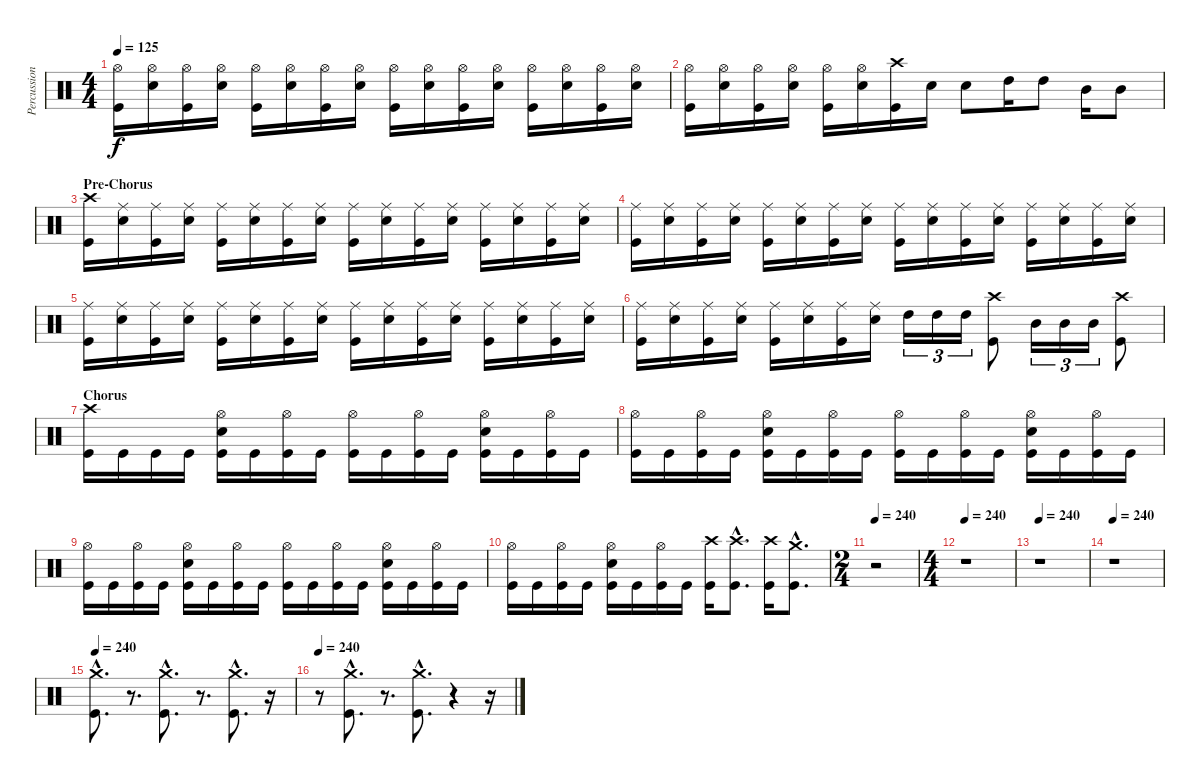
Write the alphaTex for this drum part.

\track ("Percussion" "Percussion") {instrument percussion}
\staff {score}
\articulation defaults
\ts (4 4)
\tempo 125
\clef neutral
\ks c
("Hi-Hat (open)" "Kick (hit)").16{dy f} ("Hi-Hat (open)" "Electric Snare (hit)").16 ("Hi-Hat (open)" "Kick (hit)").16 ("Hi-Hat (open)" "Electric Snare (hit)").16 ("Hi-Hat (open)" "Kick (hit)").16 ("Hi-Hat (open)" "Electric Snare (hit)").16 ("Hi-Hat (open)" "Kick (hit)").16 ("Hi-Hat (open)" "Electric Snare (hit)").16 ("Hi-Hat (open)" "Kick (hit)").16 ("Hi-Hat (open)" "Electric Snare (hit)").16 ("Hi-Hat (open)" "Kick (hit)").16 ("Hi-Hat (open)" "Electric Snare (hit)").16 ("Hi-Hat (open)" "Kick (hit)").16 ("Hi-Hat (open)" "Electric Snare (hit)").16 ("Hi-Hat (open)" "Kick (hit)").16 ("Hi-Hat (open)" "Electric Snare (hit)").16 |
("Hi-Hat (open)" "Kick (hit)").16 ("Hi-Hat (open)" "Electric Snare (hit)").16 ("Hi-Hat (open)" "Kick (hit)").16 ("Hi-Hat (open)" "Electric Snare (hit)").16 ("Hi-Hat (open)" "Kick (hit)").16 ("Hi-Hat (open)" "Electric Snare (hit)").16 ("Crash high (hit)" "Kick (hit)").16 "Electric Snare (hit)".16 "Electric Snare (hit)".8 "High Tom (hit)".16 "High Tom (hit)".8 "Mid Tom (hit)".16 "Mid Tom (hit)".8 |
\section ("" "Pre-Chorus")
("Crash high (hit)" "Kick (hit)").16 ("Ride (middle)" "Electric Snare (hit)").16 ("Ride (middle)" "Kick (hit)").16 ("Ride (middle)" "Electric Snare (hit)").16 ("Ride (middle)" "Kick (hit)").16 ("Ride (middle)" "Electric Snare (hit)").16 ("Ride (middle)" "Kick (hit)").16 ("Ride (middle)" "Electric Snare (hit)").16 ("Ride (middle)" "Kick (hit)").16 ("Ride (middle)" "Electric Snare (hit)").16 ("Ride (middle)" "Kick (hit)").16 ("Ride (middle)" "Electric Snare (hit)").16 ("Ride (middle)" "Kick (hit)").16 ("Ride (middle)" "Electric Snare (hit)").16 ("Ride (middle)" "Kick (hit)").16 ("Ride (middle)" "Electric Snare (hit)").16 |
("Ride (middle)" "Kick (hit)").16 ("Ride (middle)" "Electric Snare (hit)").16 ("Ride (middle)" "Kick (hit)").16 ("Ride (middle)" "Electric Snare (hit)").16 ("Ride (middle)" "Kick (hit)").16 ("Ride (middle)" "Electric Snare (hit)").16 ("Ride (middle)" "Kick (hit)").16 ("Ride (middle)" "Electric Snare (hit)").16 ("Ride (middle)" "Kick (hit)").16 ("Ride (middle)" "Electric Snare (hit)").16 ("Ride (middle)" "Kick (hit)").16 ("Ride (middle)" "Electric Snare (hit)").16 ("Ride (middle)" "Kick (hit)").16 ("Ride (middle)" "Electric Snare (hit)").16 ("Ride (middle)" "Kick (hit)").16 ("Ride (middle)" "Electric Snare (hit)").16 |
("Ride (middle)" "Kick (hit)").16 ("Ride (middle)" "Electric Snare (hit)").16 ("Ride (middle)" "Kick (hit)").16 ("Ride (middle)" "Electric Snare (hit)").16 ("Ride (middle)" "Kick (hit)").16 ("Ride (middle)" "Electric Snare (hit)").16 ("Ride (middle)" "Kick (hit)").16 ("Ride (middle)" "Electric Snare (hit)").16 ("Ride (middle)" "Kick (hit)").16 ("Ride (middle)" "Electric Snare (hit)").16 ("Ride (middle)" "Kick (hit)").16 ("Ride (middle)" "Electric Snare (hit)").16 ("Ride (middle)" "Kick (hit)").16 ("Ride (middle)" "Electric Snare (hit)").16 ("Ride (middle)" "Kick (hit)").16 ("Ride (middle)" "Electric Snare (hit)").16 |
("Ride (middle)" "Kick (hit)").16 ("Ride (middle)" "Electric Snare (hit)").16 ("Ride (middle)" "Kick (hit)").16 ("Ride (middle)" "Electric Snare (hit)").16 ("Ride (middle)" "Kick (hit)").16 ("Ride (middle)" "Electric Snare (hit)").16 ("Ride (middle)" "Kick (hit)").16 ("Ride (middle)" "Electric Snare (hit)").16 "High Tom (hit)".16{tu (3 2)} "High Tom (hit)".16{tu (3 2)} "High Tom (hit)".16{tu (3 2)} ("Crash high (hit)" "Kick (hit)").8 "Mid Tom (hit)".16{tu (3 2)} "Mid Tom (hit)".16{tu (3 2)} "Mid Tom (hit)".16{tu (3 2)} ("Crash high (hit)" "Kick (hit)").8 |
\section ("" "Chorus")
("Crash high (hit)" "Kick (hit)").16 "Kick (hit)".16 "Kick (hit)".16 "Kick (hit)".16 ("Hi-Hat (open)" "Electric Snare (hit)" "Kick (hit)").16 "Kick (hit)".16 ("Hi-Hat (open)" "Kick (hit)").16 "Kick (hit)".16 ("Hi-Hat (open)" "Kick (hit)").16 "Kick (hit)".16 ("Hi-Hat (open)" "Kick (hit)").16 "Kick (hit)".16 ("Hi-Hat (open)" "Electric Snare (hit)" "Kick (hit)").16 "Kick (hit)".16 ("Hi-Hat (open)" "Kick (hit)").16 "Kick (hit)".16 |
("Hi-Hat (open)" "Kick (hit)").16 "Kick (hit)".16 ("Hi-Hat (open)" "Kick (hit)").16 "Kick (hit)".16 ("Hi-Hat (open)" "Electric Snare (hit)" "Kick (hit)").16 "Kick (hit)".16 ("Hi-Hat (open)" "Kick (hit)").16 "Kick (hit)".16 ("Hi-Hat (open)" "Kick (hit)").16 "Kick (hit)".16 ("Hi-Hat (open)" "Kick (hit)").16 "Kick (hit)".16 ("Hi-Hat (open)" "Electric Snare (hit)" "Kick (hit)").16 "Kick (hit)".16 ("Hi-Hat (open)" "Kick (hit)").16 "Kick (hit)".16 |
("Hi-Hat (open)" "Kick (hit)").16 "Kick (hit)".16 ("Hi-Hat (open)" "Kick (hit)").16 "Kick (hit)".16 ("Hi-Hat (open)" "Electric Snare (hit)" "Kick (hit)").16 "Kick (hit)".16 ("Hi-Hat (open)" "Kick (hit)").16 "Kick (hit)".16 ("Hi-Hat (open)" "Kick (hit)").16 "Kick (hit)".16 ("Hi-Hat (open)" "Kick (hit)").16 "Kick (hit)".16 ("Hi-Hat (open)" "Electric Snare (hit)" "Kick (hit)").16 "Kick (hit)".16 ("Hi-Hat (open)" "Kick (hit)").16 "Kick (hit)".16 |
("Hi-Hat (open)" "Kick (hit)").16 "Kick (hit)".16 ("Hi-Hat (open)" "Kick (hit)").16 "Kick (hit)".16 ("Hi-Hat (open)" "Electric Snare (hit)" "Kick (hit)").16 "Kick (hit)".16 ("Hi-Hat (open)" "Kick (hit)").16 "Kick (hit)".16 ("Crash high (hit)" "Kick (hit)").16 ("Crash high (hit)"{hac} "Kick (hit)"{hac}).8{d} ("Crash high (hit)" "Kick (hit)").16 ("Crash medium (hit)"{hac} "Kick (hit)"{hac}).8{d} |
\ts (2 4)
\tempo 240
r.2 |
\ts (4 4)
\tempo 240
r.1 |
\tempo 240
r.1 |
\tempo 240
r.1 |
\tempo 240
("Crash medium (hit)"{hac} "Kick (hit)"{hac}).8{d} r.8{d} ("Crash medium (hit)"{hac} "Kick (hit)"{hac}).8{d} r.8{d} ("Crash medium (hit)"{hac} "Kick (hit)"{hac}).8{d} r.16 |
\tempo 240
r.8 ("Crash medium (hit)"{hac} "Kick (hit)"{hac}).8{d} r.8{d} ("Crash medium (hit)"{hac} "Kick (hit)"{hac}).8{d} r.4 r.16
